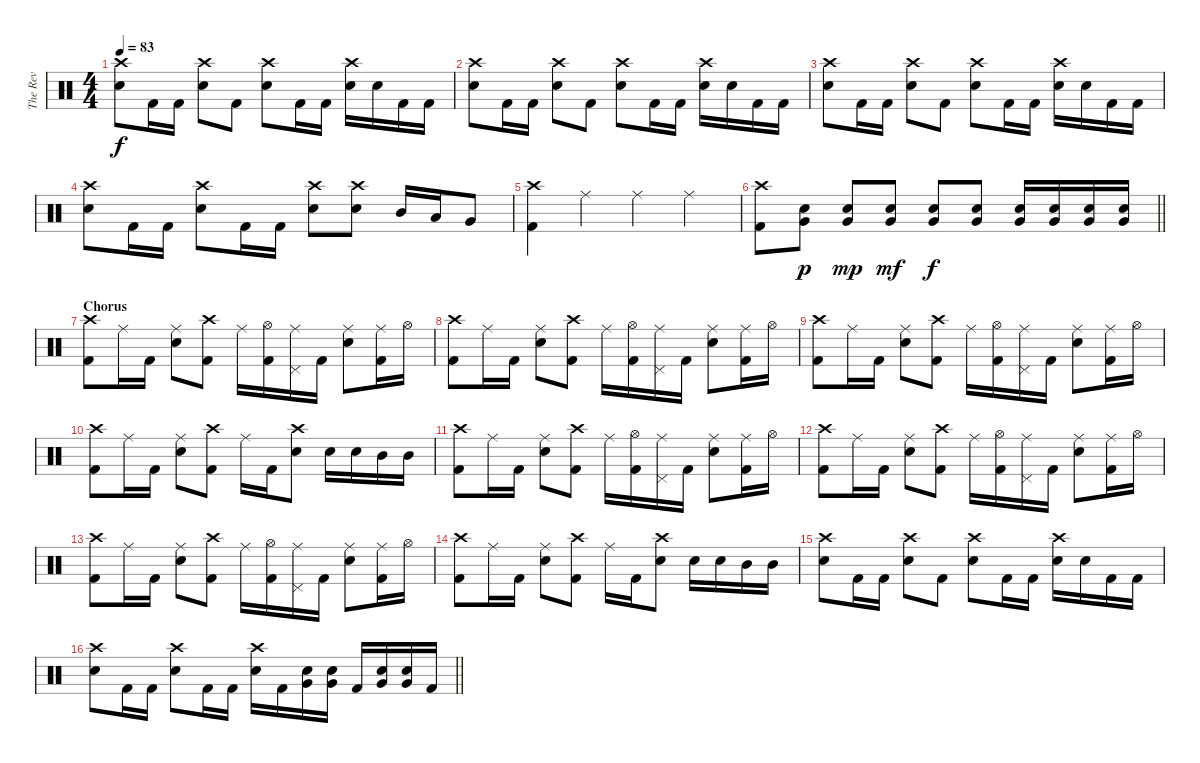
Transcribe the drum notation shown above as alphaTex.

\track ("The Rev" "The Rev") {instrument percussion}
\staff {score}
\articulation defaults
\ts (4 4)
\tempo 83
\clef neutral
\ks c
("Crash high (hit)" "Snare (hit) 2").8{dy f} "Kick (hit) 2".16 "Kick (hit) 2".16 ("Crash high (hit)" "Snare (hit) 2").8 "Kick (hit) 2".8 ("Crash high (hit)" "Snare (hit) 2").8 "Kick (hit) 2".16 "Kick (hit) 2".16 ("Crash high (hit)" "Snare (hit) 2").16 "Snare (hit) 2".16 "Kick (hit) 2".16 "Kick (hit) 2".16 |
("Crash high (hit)" "Snare (hit) 2").8 "Kick (hit) 2".16 "Kick (hit) 2".16 ("Crash high (hit)" "Snare (hit) 2").8 "Kick (hit) 2".8 ("Crash high (hit)" "Snare (hit) 2").8 "Kick (hit) 2".16 "Kick (hit) 2".16 ("Crash high (hit)" "Snare (hit) 2").16 "Snare (hit) 2".16 "Kick (hit) 2".16 "Kick (hit) 2".16 |
("Crash high (hit)" "Snare (hit) 2").8 "Kick (hit) 2".16 "Kick (hit) 2".16 ("Crash high (hit)" "Snare (hit) 2").8 "Kick (hit) 2".8 ("Crash high (hit)" "Snare (hit) 2").8 "Kick (hit) 2".16 "Kick (hit) 2".16 ("Crash high (hit)" "Snare (hit) 2").16 "Snare (hit) 2".16 "Kick (hit) 2".16 "Kick (hit) 2".16 |
("Crash high (hit)" "Snare (hit) 2").8 "Kick (hit) 2".16 "Kick (hit) 2".16 ("Crash high (hit)" "Snare (hit) 2").8 "Kick (hit) 2".16 "Kick (hit) 2".16 ("Crash high (hit)" "Snare (hit) 2").8 ("Crash high (hit)" "Snare (hit) 2").8 "Mid Tom (hit)".16 "Low Tom (hit)".16 "Very Low Tom (hit)".8 |
("Crash high (hit)" "Kick (hit) 2").4 "Ride (middle)".4 "Ride (middle)".4 "Ride (middle)".4 |
\barLineRight lightlight
("Crash high (hit)" "Kick (hit) 2").8 ("Snare (hit) 2" "Very Low Tom (hit)").8{dy p} ("Snare (hit) 2" "Very Low Tom (hit)").8{dy mp} ("Snare (hit) 2" "Very Low Tom (hit)").8{dy mf} ("Snare (hit) 2" "Very Low Tom (hit)").8{dy f} ("Snare (hit) 2" "Very Low Tom (hit)").8 ("Snare (hit) 2" "Very Low Tom (hit)").16 ("Snare (hit) 2" "Very Low Tom (hit)").16 ("Snare (hit) 2" "Very Low Tom (hit)").16 ("Snare (hit) 2" "Very Low Tom (hit)").16 |
\section ("" "Chorus")
("Crash high (hit)" "Kick (hit) 2").8 "Ride (middle)".16 "Kick (hit) 2".16 ("Ride (middle)" "Snare (hit) 2").8 ("Crash high (hit)" "Kick (hit) 2").8 "Ride (middle)".16 ("Hi-Hat (open)" "Kick (hit) 2").16 ("Ride (middle)" "Pedal Hi-Hat (hit)").16 "Kick (hit) 2".16 ("Ride (middle)" "Snare (hit) 2").8 ("Ride (middle)" "Kick (hit) 2").16 "Hi-Hat (open)".16 |
("Crash high (hit)" "Kick (hit) 2").8 "Ride (middle)".16 "Kick (hit) 2".16 ("Ride (middle)" "Snare (hit) 2").8 ("Crash high (hit)" "Kick (hit) 2").8 "Ride (middle)".16 ("Hi-Hat (open)" "Kick (hit) 2").16 ("Ride (middle)" "Pedal Hi-Hat (hit)").16 "Kick (hit) 2".16 ("Ride (middle)" "Snare (hit) 2").8 ("Ride (middle)" "Kick (hit) 2").16 "Hi-Hat (open)".16 |
("Crash high (hit)" "Kick (hit) 2").8 "Ride (middle)".16 "Kick (hit) 2".16 ("Ride (middle)" "Snare (hit) 2").8 ("Crash high (hit)" "Kick (hit) 2").8 "Ride (middle)".16 ("Hi-Hat (open)" "Kick (hit) 2").16 ("Ride (middle)" "Pedal Hi-Hat (hit)").16 "Kick (hit) 2".16 ("Ride (middle)" "Snare (hit) 2").8 ("Ride (middle)" "Kick (hit) 2").16 "Hi-Hat (open)".16 |
("Crash high (hit)" "Kick (hit) 2").8 "Ride (middle)".16 "Kick (hit) 2".16 ("Ride (middle)" "Snare (hit) 2").8 ("Crash high (hit)" "Kick (hit) 2").8 "Ride (middle)".16 "Kick (hit) 2".16 ("Crash high (hit)" "Snare (hit) 2").8 "Snare (hit) 2".16 "Snare (hit) 2".16 "Mid Tom (hit)".16 "Mid Tom (hit)".16 |
("Crash high (hit)" "Kick (hit) 2").8 "Ride (middle)".16 "Kick (hit) 2".16 ("Ride (middle)" "Snare (hit) 2").8 ("Crash high (hit)" "Kick (hit) 2").8 "Ride (middle)".16 ("Hi-Hat (open)" "Kick (hit) 2").16 ("Ride (middle)" "Pedal Hi-Hat (hit)").16 "Kick (hit) 2".16 ("Ride (middle)" "Snare (hit) 2").8 ("Ride (middle)" "Kick (hit) 2").16 "Hi-Hat (open)".16 |
("Crash high (hit)" "Kick (hit) 2").8 "Ride (middle)".16 "Kick (hit) 2".16 ("Ride (middle)" "Snare (hit) 2").8 ("Crash high (hit)" "Kick (hit) 2").8 "Ride (middle)".16 ("Hi-Hat (open)" "Kick (hit) 2").16 ("Ride (middle)" "Pedal Hi-Hat (hit)").16 "Kick (hit) 2".16 ("Ride (middle)" "Snare (hit) 2").8 ("Ride (middle)" "Kick (hit) 2").16 "Hi-Hat (open)".16 |
("Crash high (hit)" "Kick (hit) 2").8 "Ride (middle)".16 "Kick (hit) 2".16 ("Ride (middle)" "Snare (hit) 2").8 ("Crash high (hit)" "Kick (hit) 2").8 "Ride (middle)".16 ("Hi-Hat (open)" "Kick (hit) 2").16 ("Ride (middle)" "Pedal Hi-Hat (hit)").16 "Kick (hit) 2".16 ("Ride (middle)" "Snare (hit) 2").8 ("Ride (middle)" "Kick (hit) 2").16 "Hi-Hat (open)".16 |
("Crash high (hit)" "Kick (hit) 2").8 "Ride (middle)".16 "Kick (hit) 2".16 ("Ride (middle)" "Snare (hit) 2").8 ("Crash high (hit)" "Kick (hit) 2").8 "Ride (middle)".16 "Kick (hit) 2".16 ("Crash high (hit)" "Snare (hit) 2").8 "Snare (hit) 2".16 "Snare (hit) 2".16 "Mid Tom (hit)".16 "Mid Tom (hit)".16 |
("Crash high (hit)" "Snare (hit) 2").8 "Kick (hit) 2".16 "Kick (hit) 2".16 ("Crash high (hit)" "Snare (hit) 2").8 "Kick (hit) 2".8 ("Crash high (hit)" "Snare (hit) 2").8 "Kick (hit) 2".16 "Kick (hit) 2".16 ("Crash high (hit)" "Snare (hit) 2").16 "Snare (hit) 2".16 "Kick (hit) 2".16 "Kick (hit) 2".16 |
\barLineRight lightlight
("Crash high (hit)" "Snare (hit) 2").8 "Kick (hit) 2".16 "Kick (hit) 2".16 ("Crash high (hit)" "Snare (hit) 2").8 "Kick (hit) 2".16 "Kick (hit) 2".16 ("Crash high (hit)" "Snare (hit) 2").16 "Kick (hit) 2".16 ("Snare (hit) 2" "Very Low Tom (hit)").16 ("Snare (hit) 2" "Very Low Tom (hit)").16 "Kick (hit) 2".16 ("Snare (hit) 2" "Very Low Tom (hit)").16 ("Snare (hit) 2" "Very Low Tom (hit)").16 "Kick (hit) 2".16
